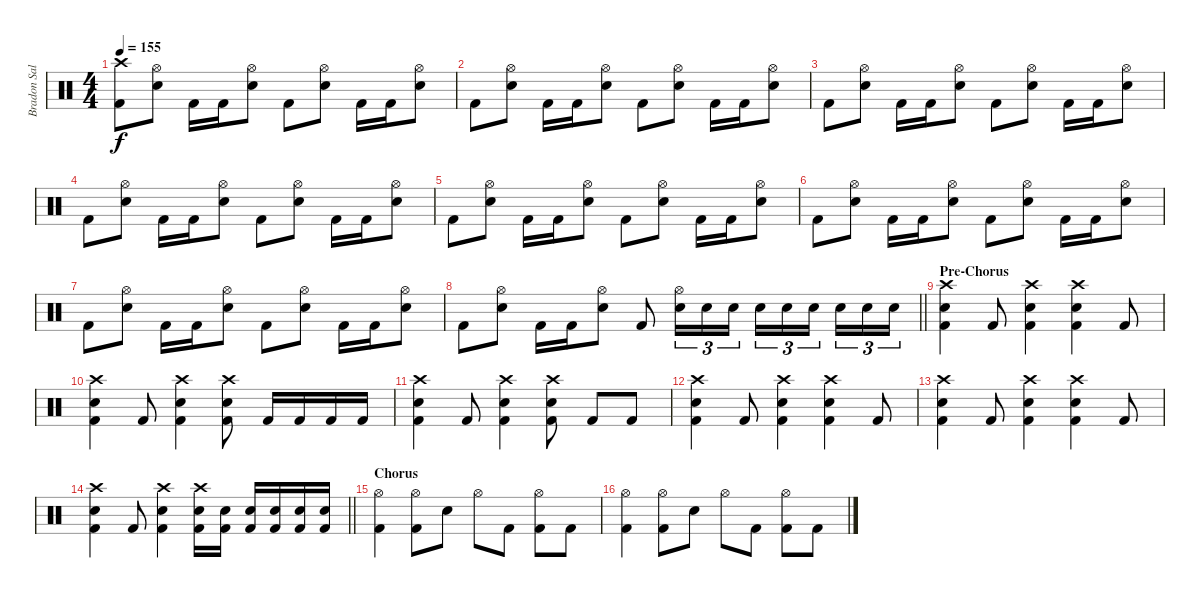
\track ("Bradon Saller" "Bradon Sal") {instrument percussion}
\staff {score}
\articulation defaults
\ts (4 4)
\tempo 155
\clef neutral
\ks c
("Crash high (hit)" "Kick (hit) 2").8{dy f} ("Hi-Hat (open)" "Electric Snare (hit)").8 "Kick (hit) 2".16 "Kick (hit) 2".16 ("Hi-Hat (open)" "Electric Snare (hit)").8 "Kick (hit) 2".8 ("Hi-Hat (open)" "Electric Snare (hit)").8 "Kick (hit) 2".16 "Kick (hit) 2".16 ("Hi-Hat (open)" "Electric Snare (hit)").8 |
"Kick (hit) 2".8 ("Hi-Hat (open)" "Electric Snare (hit)").8 "Kick (hit) 2".16 "Kick (hit) 2".16 ("Hi-Hat (open)" "Electric Snare (hit)").8 "Kick (hit) 2".8 ("Hi-Hat (open)" "Electric Snare (hit)").8 "Kick (hit) 2".16 "Kick (hit) 2".16 ("Hi-Hat (open)" "Electric Snare (hit)").8 |
"Kick (hit) 2".8 ("Hi-Hat (open)" "Electric Snare (hit)").8 "Kick (hit) 2".16 "Kick (hit) 2".16 ("Hi-Hat (open)" "Electric Snare (hit)").8 "Kick (hit) 2".8 ("Hi-Hat (open)" "Electric Snare (hit)").8 "Kick (hit) 2".16 "Kick (hit) 2".16 ("Hi-Hat (open)" "Electric Snare (hit)").8 |
"Kick (hit) 2".8 ("Hi-Hat (open)" "Electric Snare (hit)").8 "Kick (hit) 2".16 "Kick (hit) 2".16 ("Hi-Hat (open)" "Electric Snare (hit)").8 "Kick (hit) 2".8 ("Hi-Hat (open)" "Electric Snare (hit)").8 "Kick (hit) 2".16 "Kick (hit) 2".16 ("Hi-Hat (open)" "Electric Snare (hit)").8 |
"Kick (hit) 2".8 ("Hi-Hat (open)" "Electric Snare (hit)").8 "Kick (hit) 2".16 "Kick (hit) 2".16 ("Hi-Hat (open)" "Electric Snare (hit)").8 "Kick (hit) 2".8 ("Hi-Hat (open)" "Electric Snare (hit)").8 "Kick (hit) 2".16 "Kick (hit) 2".16 ("Hi-Hat (open)" "Electric Snare (hit)").8 |
"Kick (hit) 2".8 ("Hi-Hat (open)" "Electric Snare (hit)").8 "Kick (hit) 2".16 "Kick (hit) 2".16 ("Hi-Hat (open)" "Electric Snare (hit)").8 "Kick (hit) 2".8 ("Hi-Hat (open)" "Electric Snare (hit)").8 "Kick (hit) 2".16 "Kick (hit) 2".16 ("Hi-Hat (open)" "Electric Snare (hit)").8 |
"Kick (hit) 2".8 ("Hi-Hat (open)" "Electric Snare (hit)").8 "Kick (hit) 2".16 "Kick (hit) 2".16 ("Hi-Hat (open)" "Electric Snare (hit)").8 "Kick (hit) 2".8 ("Hi-Hat (open)" "Electric Snare (hit)").8 "Kick (hit) 2".16 "Kick (hit) 2".16 ("Hi-Hat (open)" "Electric Snare (hit)").8 |
\barLineRight lightlight "Kick (hit) 2".8
("Hi-Hat (open)" "Electric Snare (hit)").8 "Kick (hit) 2".16 "Kick (hit) 2".16 ("Hi-Hat (open)" "Electric Snare (hit)").8 "Kick (hit) 2".8 ("Hi-Hat (open)" "Electric Snare (hit)").16{tu (3 2)} "Electric Snare (hit)".16{tu (3 2)} "Electric Snare (hit)".16{tu (3 2)} "Electric Snare (hit)".16{tu (3 2)} "Electric Snare (hit)".16{tu (3 2)} "Electric Snare (hit)".16{tu (3 2) beam splitsecondary} "Electric Snare (hit)".16{tu (3 2)} "Electric Snare (hit)".16{tu (3 2)} "Electric Snare (hit)".16{tu (3 2)} |
\section ("" "Pre-Chorus")
("Crash high (hit)" "Electric Snare (hit)" "Kick (hit) 2").4 "Kick (hit) 2".8 ("Crash high (hit)" "Electric Snare (hit)" "Kick (hit) 2").4 ("Crash high (hit)" "Electric Snare (hit)" "Kick (hit) 2").4 "Kick (hit) 2".8 |
("Crash high (hit)" "Electric Snare (hit)" "Kick (hit) 2").4 "Kick (hit) 2".8 ("Crash high (hit)" "Electric Snare (hit)" "Kick (hit) 2").4 ("Crash high (hit)" "Electric Snare (hit)" "Kick (hit) 2").8 "Kick (hit) 2".16 "Kick (hit) 2".16 "Kick (hit) 2".16 "Kick (hit) 2".16 |
("Crash high (hit)" "Electric Snare (hit)" "Kick (hit) 2").4 "Kick (hit) 2".8 ("Crash high (hit)" "Electric Snare (hit)" "Kick (hit) 2").4 ("Crash high (hit)" "Electric Snare (hit)" "Kick (hit) 2").8 "Kick (hit) 2".8 "Kick (hit) 2".8 |
("Crash high (hit)" "Electric Snare (hit)" "Kick (hit) 2").4 "Kick (hit) 2".8 ("Crash high (hit)" "Electric Snare (hit)" "Kick (hit) 2").4 ("Crash high (hit)" "Electric Snare (hit)" "Kick (hit) 2").4 "Kick (hit) 2".8 |
("Crash high (hit)" "Electric Snare (hit)" "Kick (hit) 2").4 "Kick (hit) 2".8 ("Crash high (hit)" "Electric Snare (hit)" "Kick (hit) 2").4 ("Crash high (hit)" "Electric Snare (hit)" "Kick (hit) 2").4 "Kick (hit) 2".8 |
\barLineRight lightlight
("Crash high (hit)" "Electric Snare (hit)" "Kick (hit) 2").4 "Kick (hit) 2".8 ("Crash high (hit)" "Electric Snare (hit)" "Kick (hit) 2").4 ("Crash high (hit)" "Electric Snare (hit)" "Kick (hit) 2").16 ("Electric Snare (hit)" "Kick (hit) 2").16 ("Electric Snare (hit)" "Kick (hit) 2").16 ("Electric Snare (hit)" "Kick (hit) 2").16 ("Electric Snare (hit)" "Kick (hit) 2").16 ("Electric Snare (hit)" "Kick (hit) 2").16 |
\section ("" "Chorus")
("Hi-Hat (open)" "Kick (hit) 2").4 ("Hi-Hat (open)" "Kick (hit) 2").8 "Electric Snare (hit)".8 "Hi-Hat (open)".8 "Kick (hit) 2".8 ("Hi-Hat (open)" "Kick (hit) 2").8 "Kick (hit) 2".8 |
("Hi-Hat (open)" "Kick (hit) 2").4 ("Hi-Hat (open)" "Kick (hit) 2").8 "Electric Snare (hit)".8 "Hi-Hat (open)".8 "Kick (hit) 2".8 ("Hi-Hat (open)" "Kick (hit) 2").8 "Kick (hit) 2".8
